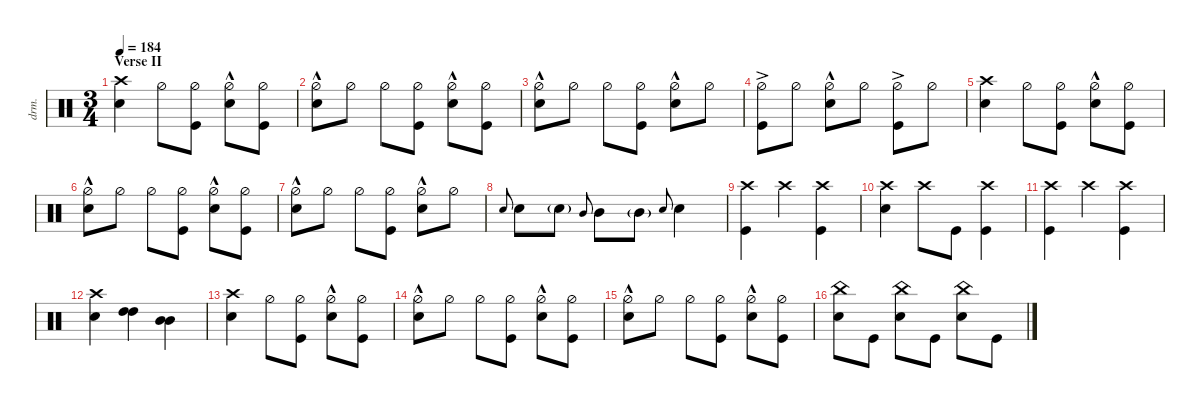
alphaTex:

\defaultSystemsLayout 4
\hideDynamics
\bracketExtendMode nobrackets
\otherSystemsTrackNameOrientation horizontal
\track ("Drums" "drm.") {defaultSystemsLayout 4 multiBarRest instrument percussion}
\staff {score}
\articulation defaults
\ts (3 4)
\section ("" "Verse II")
\tempo 184
\clef neutral
\ks c
("Snare (hit) 2" "Crash high (hit)").4{dy f} "Hi-Hat (half)".8 ("Hi-Hat (half)" "Kick (hit)").8 ("Hi-Hat (half)"{hac} "Snare (hit) 2").8 ("Hi-Hat (half)" "Kick (hit)").8 |
("Hi-Hat (half)"{hac} "Snare (hit) 2").8 "Hi-Hat (half)".8 "Hi-Hat (half)".8 ("Hi-Hat (half)" "Kick (hit)").8 ("Hi-Hat (half)"{hac} "Snare (hit) 2").8 ("Hi-Hat (half)" "Kick (hit)").8 |
("Hi-Hat (half)"{hac} "Snare (hit) 2").8 "Hi-Hat (half)".8 "Hi-Hat (half)".8 ("Hi-Hat (half)" "Kick (hit)").8 ("Hi-Hat (half)"{hac} "Snare (hit) 2").8 "Hi-Hat (half)".8 |
("Hi-Hat (half)"{ac} "Kick (hit)").8 "Hi-Hat (half)".8 ("Hi-Hat (half)"{hac} "Snare (hit) 2").8 "Hi-Hat (half)".8 ("Hi-Hat (half)"{ac} "Kick (hit)").8 "Hi-Hat (half)".8 |
("Snare (hit) 2" "Crash high (hit)").4 "Hi-Hat (half)".8 ("Hi-Hat (half)" "Kick (hit)").8 ("Hi-Hat (half)"{hac} "Snare (hit) 2").8 ("Hi-Hat (half)" "Kick (hit)").8 |
("Hi-Hat (half)"{hac} "Snare (hit) 2").8 "Hi-Hat (half)".8 "Hi-Hat (half)".8 ("Hi-Hat (half)" "Kick (hit)").8 ("Hi-Hat (half)"{hac} "Snare (hit) 2").8 ("Hi-Hat (half)" "Kick (hit)").8 |
("Hi-Hat (half)"{hac} "Snare (hit) 2").8 "Hi-Hat (half)".8 "Hi-Hat (half)".8 ("Hi-Hat (half)" "Kick (hit)").8 ("Hi-Hat (half)"{hac} "Snare (hit) 2").8 "Hi-Hat (half)".8 |
"Snare (hit) 2".8{gr onbeat} "Snare (hit) 2".8 "Snare (hit) 2"{g}.8{dy mf} "Mid Tom (hit)".8{gr onbeat dy ff} "Mid Tom (hit)".8 "Mid Tom (hit)"{g}.8{dy f} "Snare (hit) 2".8{gr onbeat} "Snare (hit) 2".4 |
("Crash high (hit)" "Kick (hit)").4 "Crash high (hit)".4 ("Kick (hit)" "Crash high (hit)").4 |
("Crash high (hit)" "Snare (hit) 2").4 "Crash high (hit)".8 "Kick (hit)".8 ("Kick (hit)" "Crash high (hit)").4 |
("Crash high (hit)" "Kick (hit)").4 "Crash high (hit)".4 ("Kick (hit)" "Crash high (hit)").4 |
("Crash high (hit)" "Snare (hit) 2").4 ("High Tom (hit)" "High Tom (hit)").4{dy ff} ("Mid Tom (hit)" "Mid Tom (hit)").4 |
("Snare (hit) 2" "Crash high (hit)").4{dy f} "Hi-Hat (half)".8 ("Hi-Hat (half)" "Kick (hit)").8 ("Hi-Hat (half)"{hac} "Snare (hit) 2").8 ("Hi-Hat (half)" "Kick (hit)").8 |
("Hi-Hat (half)"{hac} "Snare (hit) 2").8 "Hi-Hat (half)".8 "Hi-Hat (half)".8 ("Hi-Hat (half)" "Kick (hit)").8 ("Hi-Hat (half)"{hac} "Snare (hit) 2").8 ("Hi-Hat (half)" "Kick (hit)").8 |
("Hi-Hat (half)"{hac} "Snare (hit) 2").8 "Hi-Hat (half)".8 "Hi-Hat (half)".8 ("Hi-Hat (half)" "Kick (hit)").8 ("Hi-Hat (half)"{hac} "Snare (hit) 2").8 ("Hi-Hat (half)" "Kick (hit)").8 |
("Snare (hit) 2" "China (hit)").8 "Kick (hit)".8 ("Snare (hit) 2" "China (hit)").8 "Kick (hit)".8 ("Snare (hit) 2" "China (hit)").8 "Kick (hit)".8
